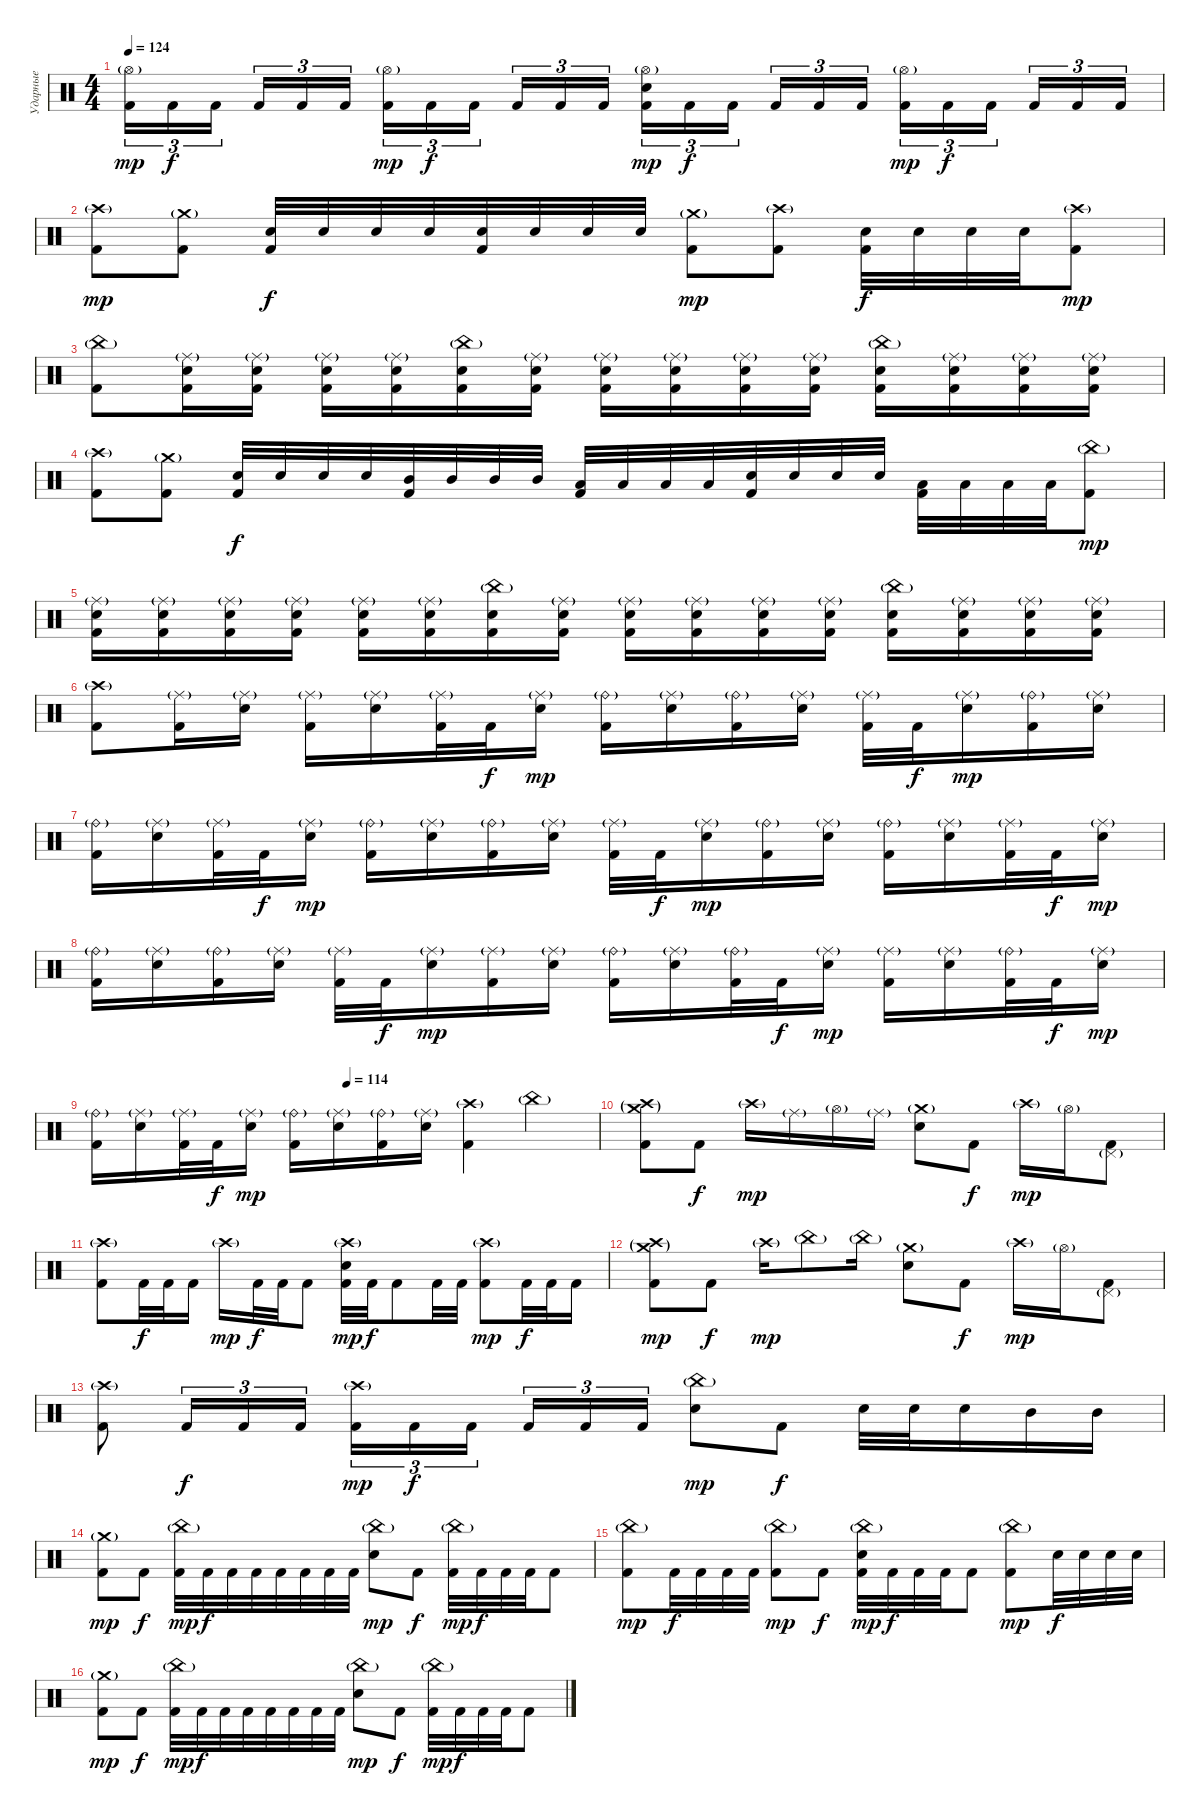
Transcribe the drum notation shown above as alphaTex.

\track ("Ударные" "Ударные") {instrument percussion}
\staff {score}
\articulation defaults
\ts (4 4)
\tempo 124
\clef neutral
\ks c
("Hi-Hat (open)"{g} "Kick (hit) 2").16{tu (3 2) dy mp} "Kick (hit) 2".16{tu (3 2) dy f} "Kick (hit) 2".16{tu (3 2)} "Kick (hit) 2".16{tu (3 2)} "Kick (hit) 2".16{tu (3 2)} "Kick (hit) 2".16{tu (3 2)} ("Hi-Hat (open)"{g} "Kick (hit) 2").16{tu (3 2) dy mp} "Kick (hit) 2".16{tu (3 2) dy f} "Kick (hit) 2".16{tu (3 2)} "Kick (hit) 2".16{tu (3 2)} "Kick (hit) 2".16{tu (3 2)} "Kick (hit) 2".16{tu (3 2)} ("Hi-Hat (open)"{g} "Electric Snare (hit)" "Kick (hit) 2").16{tu (3 2) dy mp} "Kick (hit) 2".16{tu (3 2) dy f} "Kick (hit) 2".16{tu (3 2)} "Kick (hit) 2".16{tu (3 2)} "Kick (hit) 2".16{tu (3 2)} "Kick (hit) 2".16{tu (3 2)} ("Hi-Hat (open)"{g} "Kick (hit) 2").16{tu (3 2) dy mp} "Kick (hit) 2".16{tu (3 2) dy f} "Kick (hit) 2".16{tu (3 2)} "Kick (hit) 2".16{tu (3 2)} "Kick (hit) 2".16{tu (3 2)} "Kick (hit) 2".16{tu (3 2)} |
("Crash high (hit)"{g} "Kick (hit) 2").8{dy mp} ("Crash medium (hit)"{g} "Kick (hit) 2").8 ("Electric Snare (hit)" "Kick (hit) 2").32{dy f} "Electric Snare (hit)".32 "Electric Snare (hit)".32 "Electric Snare (hit)".32 ("Electric Snare (hit)" "Kick (hit) 2").32 "Electric Snare (hit)".32 "Electric Snare (hit)".32 "Electric Snare (hit)".32 ("Crash medium (hit)"{g} "Kick (hit) 2").8{dy mp} ("Crash high (hit)"{g} "Kick (hit) 2").8 ("Electric Snare (hit)" "Kick (hit) 2").32{dy f} "Electric Snare (hit)".32 "Electric Snare (hit)".32 "Electric Snare (hit)".32 ("Crash high (hit)"{g} "Kick (hit) 2").8{dy mp} |
("China (hit)"{g} "Kick (hit) 2").8 ("Ride (middle)"{g} "Electric Snare (hit)" "Kick (hit) 2").16 ("Ride (middle)"{g} "Electric Snare (hit)" "Kick (hit) 2").16 ("Ride (middle)"{g} "Electric Snare (hit)" "Kick (hit) 2").16 ("Ride (middle)"{g} "Electric Snare (hit)" "Kick (hit) 2").16 ("China (hit)"{g} "Electric Snare (hit)" "Kick (hit) 2").16 ("Ride (middle)"{g} "Electric Snare (hit)" "Kick (hit) 2").16 ("Ride (middle)"{g} "Electric Snare (hit)" "Kick (hit) 2").16 ("Ride (middle)"{g} "Electric Snare (hit)" "Kick (hit) 2").16 ("Ride (middle)"{g} "Electric Snare (hit)" "Kick (hit) 2").16 ("Ride (middle)"{g} "Electric Snare (hit)" "Kick (hit) 2").16 ("China (hit)"{g} "Electric Snare (hit)" "Kick (hit) 2").16 ("Ride (middle)"{g} "Electric Snare (hit)" "Kick (hit) 2").16 ("Ride (middle)"{g} "Electric Snare (hit)" "Kick (hit) 2").16 ("Ride (middle)"{g} "Electric Snare (hit)" "Kick (hit) 2").16 |
("Crash high (hit)"{g} "Kick (hit) 2").8 ("Crash medium (hit)"{g} "Kick (hit) 2").8 ("Electric Snare (hit)" "Kick (hit) 2").32{dy f} "Electric Snare (hit)".32 "Electric Snare (hit)".32 "Electric Snare (hit)".32 ("Mid Tom (hit)" "Kick (hit) 2").32 "Mid Tom (hit)".32 "Mid Tom (hit)".32 "Mid Tom (hit)".32 ("Low Tom (hit)" "Kick (hit) 2").32 "Low Tom (hit)".32 "Low Tom (hit)".32 "Low Tom (hit)".32 ("Electric Snare (hit)" "Kick (hit) 2").32 "Electric Snare (hit)".32 "Electric Snare (hit)".32 "Electric Snare (hit)".32 ("Low Tom (hit)" "Kick (hit) 2").32 "Low Tom (hit)".32 "Low Tom (hit)".32 "Low Tom (hit)".32 ("China (hit)"{g} "Kick (hit) 2").8{dy mp} |
("Ride (middle)"{g} "Electric Snare (hit)" "Kick (hit) 2").16 ("Ride (middle)"{g} "Electric Snare (hit)" "Kick (hit) 2").16 ("Ride (middle)"{g} "Electric Snare (hit)" "Kick (hit) 2").16 ("Ride (middle)"{g} "Electric Snare (hit)" "Kick (hit) 2").16 ("Ride (middle)"{g} "Electric Snare (hit)" "Kick (hit) 2").16 ("Ride (middle)"{g} "Electric Snare (hit)" "Kick (hit) 2").16 ("China (hit)"{g} "Electric Snare (hit)" "Kick (hit) 2").16 ("Ride (middle)"{g} "Electric Snare (hit)" "Kick (hit) 2").16 ("Ride (middle)"{g} "Electric Snare (hit)" "Kick (hit) 2").16 ("Ride (middle)"{g} "Electric Snare (hit)" "Kick (hit) 2").16 ("Ride (middle)"{g} "Electric Snare (hit)" "Kick (hit) 2").16 ("Ride (middle)"{g} "Electric Snare (hit)" "Kick (hit) 2").16 ("China (hit)"{g} "Electric Snare (hit)" "Kick (hit) 2").16 ("Ride (middle)"{g} "Electric Snare (hit)" "Kick (hit) 2").16 ("Ride (middle)"{g} "Electric Snare (hit)" "Kick (hit) 2").16 ("Ride (middle)"{g} "Electric Snare (hit)" "Kick (hit) 2").16 |
("Crash high (hit)"{g} "Kick (hit) 2").8 ("Ride (middle)"{g} "Kick (hit) 2").16 ("Ride (middle)"{g} "Electric Snare (hit)").16 ("Ride (middle)"{g} "Kick (hit) 2").16 ("Ride (middle)"{g} "Electric Snare (hit)").16 ("Ride (middle)"{g} "Kick (hit) 2").32 "Kick (hit) 2".32{dy f} ("Ride (middle)"{g} "Electric Snare (hit)").16{dy mp} ("Ride (bell)"{g} "Kick (hit) 2").16 ("Ride (middle)"{g} "Electric Snare (hit)").16 ("Ride (bell)"{g} "Kick (hit) 2").16 ("Ride (middle)"{g} "Electric Snare (hit)").16 ("Ride (middle)"{g} "Kick (hit) 2").32 "Kick (hit) 2".32{dy f} ("Ride (middle)"{g} "Electric Snare (hit)").16{dy mp} ("Ride (bell)"{g} "Kick (hit) 2").16 ("Ride (middle)"{g} "Electric Snare (hit)").16 |
("Ride (bell)"{g} "Kick (hit) 2").16 ("Ride (middle)"{g} "Electric Snare (hit)").16 ("Ride (middle)"{g} "Kick (hit) 2").32 "Kick (hit) 2".32{dy f} ("Ride (middle)"{g} "Electric Snare (hit)").16{dy mp} ("Ride (bell)"{g} "Kick (hit) 2").16 ("Ride (middle)"{g} "Electric Snare (hit)").16 ("Ride (bell)"{g} "Kick (hit) 2").16 ("Ride (middle)"{g} "Electric Snare (hit)").16 ("Ride (middle)"{g} "Kick (hit) 2").32 "Kick (hit) 2".32{dy f} ("Ride (middle)"{g} "Electric Snare (hit)").16{dy mp} ("Ride (bell)"{g} "Kick (hit) 2").16 ("Ride (middle)"{g} "Electric Snare (hit)").16 ("Ride (bell)"{g} "Kick (hit) 2").16 ("Ride (middle)"{g} "Electric Snare (hit)").16 ("Ride (middle)"{g} "Kick (hit) 2").32 "Kick (hit) 2".32{dy f} ("Ride (middle)"{g} "Electric Snare (hit)").16{dy mp} |
("Ride (bell)"{g} "Kick (hit) 2").16 ("Ride (middle)"{g} "Electric Snare (hit)").16 ("Ride (bell)"{g} "Kick (hit) 2").16 ("Ride (middle)"{g} "Electric Snare (hit)").16 ("Ride (middle)"{g} "Kick (hit) 2").32 "Kick (hit) 2".32{dy f} ("Ride (middle)"{g} "Electric Snare (hit)").16{dy mp} ("Ride (middle)"{g} "Kick (hit) 2").16 ("Ride (middle)"{g} "Electric Snare (hit)").16 ("Ride (bell)"{g} "Kick (hit) 2").16 ("Ride (middle)"{g} "Electric Snare (hit)").16 ("Ride (bell)"{g} "Kick (hit) 2").32 "Kick (hit) 2".32{dy f} ("Ride (middle)"{g} "Electric Snare (hit)").16{dy mp} ("Ride (middle)"{g} "Kick (hit) 2").16 ("Ride (middle)"{g} "Electric Snare (hit)").16 ("Ride (bell)"{g} "Kick (hit) 2").32 "Kick (hit) 2".32{dy f} ("Ride (middle)"{g} "Electric Snare (hit)").16{dy mp} |
\tempo (114 0.5)
("Ride (bell)"{g} "Kick (hit) 2").16 ("Ride (middle)"{g} "Electric Snare (hit)").16 ("Ride (middle)"{g} "Kick (hit) 2").32 "Kick (hit) 2".32{dy f} ("Ride (middle)"{g} "Electric Snare (hit)").16{dy mp} ("Ride (bell)"{g} "Kick (hit) 2").16 ("Ride (middle)"{g} "Electric Snare (hit)").16 ("Ride (bell)"{g} "Kick (hit) 2").16 ("Ride (middle)"{g} "Electric Snare (hit)").16 ("Crash high (hit)"{g} "Kick (hit) 2").4 "China (hit)"{g}.4 |
("Crash high (hit)"{g} "Crash medium (hit)"{g} "Kick (hit) 2").8 "Kick (hit) 2".8{dy f} "Crash high (hit)"{g}.16{dy mp} "Ride (middle)"{g}.16 "Hi-Hat (open)"{g}.16 "Ride (middle)"{g}.16 ("Crash medium (hit)"{g} "Electric Snare (hit)").8 "Kick (hit) 2".8{dy f} "Crash high (hit)"{g}.16{dy mp} "Hi-Hat (open)"{g}.16 ("Pedal Hi-Hat (hit)"{g} "Kick (hit) 2").8 |
("Crash high (hit)"{g} "Kick (hit) 2").8 "Kick (hit) 2".32{dy f} "Kick (hit) 2".32 "Kick (hit) 2".16 "Crash high (hit)"{g}.16{dy mp} "Kick (hit) 2".32{dy f} "Kick (hit) 2".32 "Kick (hit) 2".8 ("Crash high (hit)"{g} "Electric Snare (hit)" "Kick (hit) 2").32{dy mp} "Kick (hit) 2".32{dy f} "Kick (hit) 2".8 "Kick (hit) 2".32 "Kick (hit) 2".32 ("Crash high (hit)"{g} "Kick (hit) 2").8{dy mp} "Kick (hit) 2".32{dy f} "Kick (hit) 2".32 "Kick (hit) 2".16 |
("Crash high (hit)"{g} "Crash medium (hit)"{g} "Kick (hit) 2").8{dy mp} "Kick (hit) 2".8{dy f} "Crash high (hit)"{g}.16{dy mp} "China (hit)"{g}.8 "China (hit)"{g}.16 ("Crash medium (hit)"{g} "Electric Snare (hit)").8 "Kick (hit) 2".8{dy f} "Crash high (hit)"{g}.16{dy mp} "Hi-Hat (open)"{g}.16 ("Pedal Hi-Hat (hit)"{g} "Kick (hit) 2").8 |
("Crash high (hit)"{g} "Kick (hit) 2").8 "Kick (hit) 2".16{tu (3 2) dy f} "Kick (hit) 2".16{tu (3 2)} "Kick (hit) 2".16{tu (3 2)} ("Crash high (hit)"{g} "Kick (hit) 2").16{tu (3 2) dy mp} "Kick (hit) 2".16{tu (3 2) dy f} "Kick (hit) 2".16{tu (3 2)} "Kick (hit) 2".16{tu (3 2)} "Kick (hit) 2".16{tu (3 2)} "Kick (hit) 2".16{tu (3 2)} ("China (hit)"{g} "Electric Snare (hit)").8{dy mp} "Kick (hit) 2".8{dy f} "Electric Snare (hit)".32 "Electric Snare (hit)".32 "Electric Snare (hit)".16 "Mid Tom (hit)".16 "Mid Tom (hit)".16 |
("Crash medium (hit)"{g} "Kick (hit) 2").8{dy mp} "Kick (hit) 2".8{dy f} ("China (hit)"{g} "Kick (hit) 2").32{dy mp} "Kick (hit) 2".32{dy f} "Kick (hit) 2".32 "Kick (hit) 2".32 "Kick (hit) 2".32 "Kick (hit) 2".32 "Kick (hit) 2".32 "Kick (hit) 2".32 ("China (hit)"{g} "Electric Snare (hit)").8{dy mp} "Kick (hit) 2".8{dy f} ("China (hit)"{g} "Kick (hit) 2").32{dy mp} "Kick (hit) 2".32{dy f} "Kick (hit) 2".32 "Kick (hit) 2".32 "Kick (hit) 2".8 |
("China (hit)"{g} "Kick (hit) 2").8{dy mp} "Kick (hit) 2".32{dy f} "Kick (hit) 2".32 "Kick (hit) 2".32 "Kick (hit) 2".32 ("China (hit)"{g} "Kick (hit) 2").8{dy mp} "Kick (hit) 2".8{dy f} ("China (hit)"{g} "Electric Snare (hit)" "Kick (hit) 2").32{dy mp} "Kick (hit) 2".32{dy f} "Kick (hit) 2".32 "Kick (hit) 2".32 "Kick (hit) 2".8 ("China (hit)"{g} "Kick (hit) 2").8{dy mp} "Electric Snare (hit)".32{dy f} "Electric Snare (hit)".32 "Electric Snare (hit)".32 "Electric Snare (hit)".32 |
("Crash medium (hit)"{g} "Kick (hit) 2").8{dy mp} "Kick (hit) 2".8{dy f} ("China (hit)"{g} "Kick (hit) 2").32{dy mp} "Kick (hit) 2".32{dy f} "Kick (hit) 2".32 "Kick (hit) 2".32 "Kick (hit) 2".32 "Kick (hit) 2".32 "Kick (hit) 2".32 "Kick (hit) 2".32 ("China (hit)"{g} "Electric Snare (hit)").8{dy mp} "Kick (hit) 2".8{dy f} ("China (hit)"{g} "Kick (hit) 2").32{dy mp} "Kick (hit) 2".32{dy f} "Kick (hit) 2".32 "Kick (hit) 2".32 "Kick (hit) 2".8
